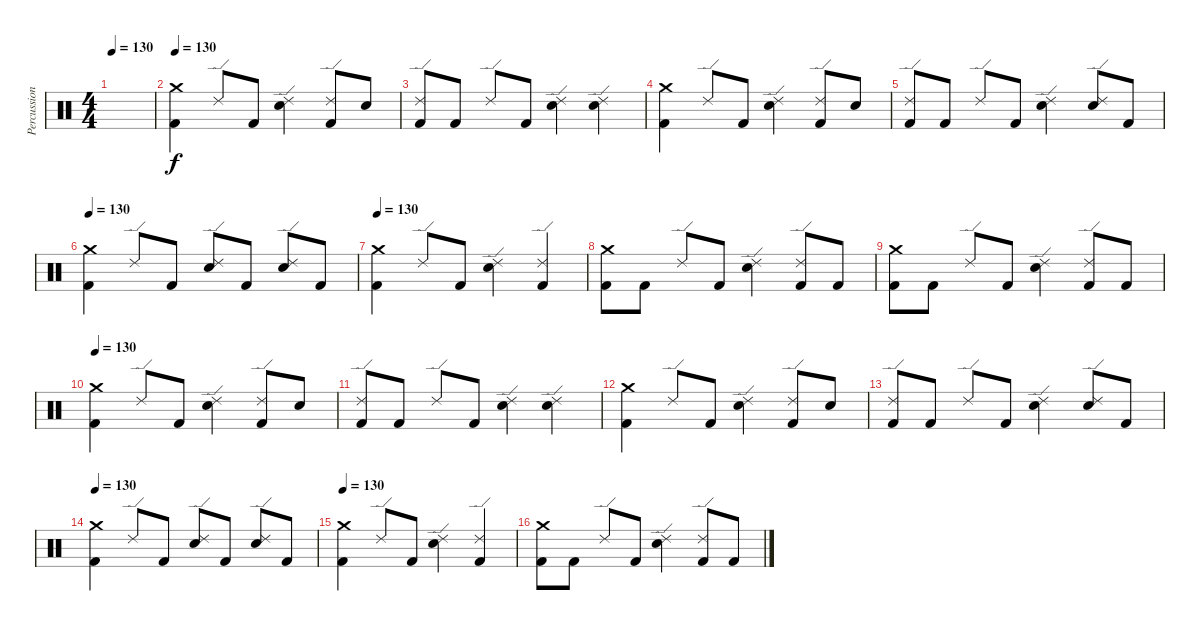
\track ("Percussion" "Percussion") {instrument percussion}
\staff {score}
\articulation defaults
\ts (4 4)
\tempo 130
\clef neutral
\ks c
|
\tempo 130
("Crash medium (hit)" "Kick (hit) 2").4 "Ride (edge) 2".8 "Kick (hit) 2".8 ("Ride (edge) 2" "Electric Snare (hit)").4 ("Kick (hit) 2" "Ride (edge) 2").8 "Electric Snare (hit)".8 |
("Kick (hit) 2" "Ride (edge) 2").8 "Kick (hit) 2".8 "Ride (edge) 2".8 "Kick (hit) 2".8 ("Electric Snare (hit)" "Ride (edge) 2").4 ("Electric Snare (hit)" "Ride (edge) 2").4 |
("Crash medium (hit)" "Kick (hit) 2").4 "Ride (edge) 2".8 "Kick (hit) 2".8 ("Ride (edge) 2" "Electric Snare (hit)").4 ("Kick (hit) 2" "Ride (edge) 2").8 "Electric Snare (hit)".8 |
("Kick (hit) 2" "Ride (edge) 2").8 "Kick (hit) 2".8 "Ride (edge) 2".8 "Kick (hit) 2".8 ("Electric Snare (hit)" "Ride (edge) 2").4 ("Electric Snare (hit)" "Ride (edge) 2").8 "Kick (hit) 2".8 |
\tempo 130
("Crash medium (hit)" "Kick (hit) 2").4 "Ride (edge) 2".8 "Kick (hit) 2".8 ("Ride (edge) 2" "Electric Snare (hit)").8 "Kick (hit) 2".8 ("Ride (edge) 2" "Electric Snare (hit)").8 "Kick (hit) 2".8 |
\tempo 130
("Crash medium (hit)" "Kick (hit) 2").4 "Ride (edge) 2".8 "Kick (hit) 2".8 ("Ride (edge) 2" "Electric Snare (hit)").4 ("Ride (edge) 2" "Kick (hit) 2").4 |
("Crash medium (hit)" "Kick (hit) 2").8 "Kick (hit) 2".8 "Ride (edge) 2".8 "Kick (hit) 2".8 ("Ride (edge) 2" "Electric Snare (hit)").4 ("Ride (edge) 2" "Kick (hit) 2").8 "Kick (hit) 2".8 |
("Crash medium (hit)" "Kick (hit) 2").8 "Kick (hit) 2".8 "Ride (edge) 2".8 "Kick (hit) 2".8 ("Ride (edge) 2" "Electric Snare (hit)").4 ("Ride (edge) 2" "Kick (hit) 2").8 "Kick (hit) 2".8 |
\tempo 130
("Crash medium (hit)" "Kick (hit) 2").4 "Ride (edge) 2".8 "Kick (hit) 2".8 ("Ride (edge) 2" "Electric Snare (hit)").4 ("Kick (hit) 2" "Ride (edge) 2").8 "Electric Snare (hit)".8 |
("Kick (hit) 2" "Ride (edge) 2").8 "Kick (hit) 2".8 "Ride (edge) 2".8 "Kick (hit) 2".8 ("Electric Snare (hit)" "Ride (edge) 2").4 ("Electric Snare (hit)" "Ride (edge) 2").4 |
("Crash medium (hit)" "Kick (hit) 2").4 "Ride (edge) 2".8 "Kick (hit) 2".8 ("Ride (edge) 2" "Electric Snare (hit)").4 ("Kick (hit) 2" "Ride (edge) 2").8 "Electric Snare (hit)".8 |
("Kick (hit) 2" "Ride (edge) 2").8 "Kick (hit) 2".8 "Ride (edge) 2".8 "Kick (hit) 2".8 ("Electric Snare (hit)" "Ride (edge) 2").4 ("Electric Snare (hit)" "Ride (edge) 2").8 "Kick (hit) 2".8 |
\tempo 130
("Crash medium (hit)" "Kick (hit) 2").4 "Ride (edge) 2".8 "Kick (hit) 2".8 ("Ride (edge) 2" "Electric Snare (hit)").8 "Kick (hit) 2".8 ("Ride (edge) 2" "Electric Snare (hit)").8 "Kick (hit) 2".8 |
\tempo 130
("Crash medium (hit)" "Kick (hit) 2").4 "Ride (edge) 2".8 "Kick (hit) 2".8 ("Ride (edge) 2" "Electric Snare (hit)").4 ("Ride (edge) 2" "Kick (hit) 2").4 |
("Crash medium (hit)" "Kick (hit) 2").8 "Kick (hit) 2".8 "Ride (edge) 2".8 "Kick (hit) 2".8 ("Ride (edge) 2" "Electric Snare (hit)").4 ("Ride (edge) 2" "Kick (hit) 2").8 "Kick (hit) 2".8
